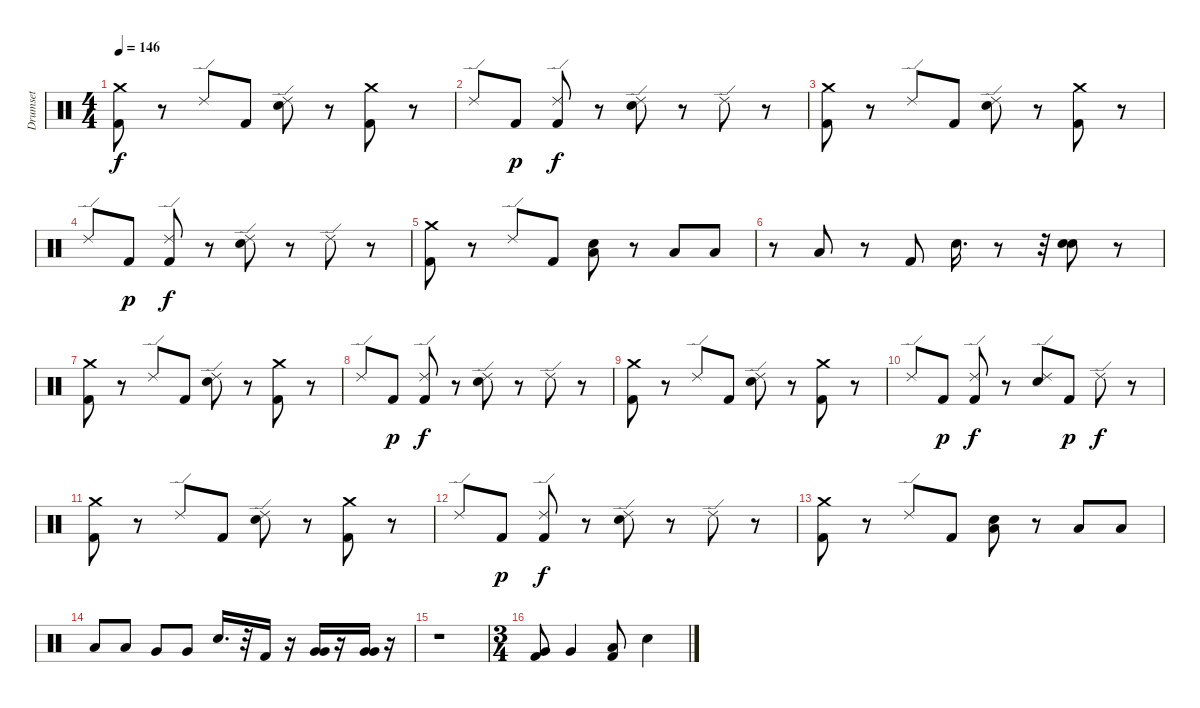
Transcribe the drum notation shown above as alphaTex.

\track ("Drumset" "Drumset") {instrument percussion}
\staff {score}
\articulation defaults
\ts (4 4)
\tempo 146
\clef neutral
\ks c
("Kick (hit) 2" "Crash medium (hit)").8{dy f} r.8 "Ride (edge) 2".8 "Kick (hit) 2".8 ("Electric Snare (hit)" "Ride (edge) 2").8 r.8 ("Kick (hit) 2" "Crash medium (hit)").8 r.8 |
"Ride (edge) 2".8 "Kick (hit) 2".8{dy p} ("Kick (hit) 2" "Ride (edge) 2").8{dy f} r.8 ("Electric Snare (hit)" "Ride (edge) 2").8 r.8 "Ride (edge) 2".8 r.8 |
("Kick (hit) 2" "Crash medium (hit)").8 r.8 "Ride (edge) 2".8 "Kick (hit) 2".8 ("Electric Snare (hit)" "Ride (edge) 2").8 r.8 ("Kick (hit) 2" "Crash medium (hit)").8 r.8 |
"Ride (edge) 2".8 "Kick (hit) 2".8{dy p} ("Kick (hit) 2" "Ride (edge) 2").8{dy f} r.8 ("Electric Snare (hit)" "Ride (edge) 2").8 r.8 "Ride (edge) 2".8 r.8 |
("Kick (hit) 2" "Crash medium (hit)").8 r.8 "Ride (edge) 2".8 "Kick (hit) 2".8 ("Electric Snare (hit)" "Low Floor Tom (hit)").8 r.8 "Low Tom (hit)".8 "Low Tom (hit)".8 |
r.8 "Low Tom (hit)".8 r.8 "Kick (hit) 2".8 "Electric Snare (hit)".16{d} r.8 r.32 ("Electric Snare (hit)" "Electric Snare (hit)").8 r.8 |
("Kick (hit) 2" "Crash medium (hit)").8 r.8 "Ride (edge) 2".8 "Kick (hit) 2".8 ("Electric Snare (hit)" "Ride (edge) 2").8 r.8 ("Kick (hit) 2" "Crash medium (hit)").8 r.8 |
"Ride (edge) 2".8 "Kick (hit) 2".8{dy p} ("Kick (hit) 2" "Ride (edge) 2").8{dy f} r.8 ("Electric Snare (hit)" "Ride (edge) 2").8 r.8 "Ride (edge) 2".8 r.8 |
("Kick (hit) 2" "Crash medium (hit)").8 r.8 "Ride (edge) 2".8 "Kick (hit) 2".8 ("Electric Snare (hit)" "Ride (edge) 2").8 r.8 ("Kick (hit) 2" "Crash medium (hit)").8 r.8 |
"Ride (edge) 2".8 "Kick (hit) 2".8{dy p} ("Kick (hit) 2" "Ride (edge) 2").8{dy f} r.8 ("Electric Snare (hit)" "Ride (edge) 2").8 "Kick (hit) 2".8{dy p} "Ride (edge) 2".8{dy f} r.8 |
("Kick (hit) 2" "Crash medium (hit)").8 r.8 "Ride (edge) 2".8 "Kick (hit) 2".8 ("Electric Snare (hit)" "Ride (edge) 2").8 r.8 ("Kick (hit) 2" "Crash medium (hit)").8 r.8 |
"Ride (edge) 2".8 "Kick (hit) 2".8{dy p} ("Kick (hit) 2" "Ride (edge) 2").8{dy f} r.8 ("Electric Snare (hit)" "Ride (edge) 2").8 r.8 "Ride (edge) 2".8 r.8 |
("Kick (hit) 2" "Crash medium (hit)").8 r.8 "Ride (edge) 2".8 "Kick (hit) 2".8 ("Electric Snare (hit)" "Low Floor Tom (hit)").8 r.8 "Low Tom (hit)".8 "Low Floor Tom (hit)".8 |
"Low Floor Tom (hit)".8 "Low Tom (hit)".8 "Very Low Tom (hit)".8 "Very Low Tom (hit)".8 "Electric Snare (hit)".16{d} r.32 "Kick (hit) 2".16 r.16 ("Very Low Tom (hit)" "Very Low Tom (hit)").16 r.16 ("Very Low Tom (hit)" "Very Low Tom (hit)").16 r.16 |
r.1 |
\ts (3 4)
("Kick (hit) 2" "Very Low Tom (hit)").8 "Very Low Tom (hit)".4 ("Kick (hit) 2" "Low Tom (hit)").8 "Electric Snare (hit)".4
